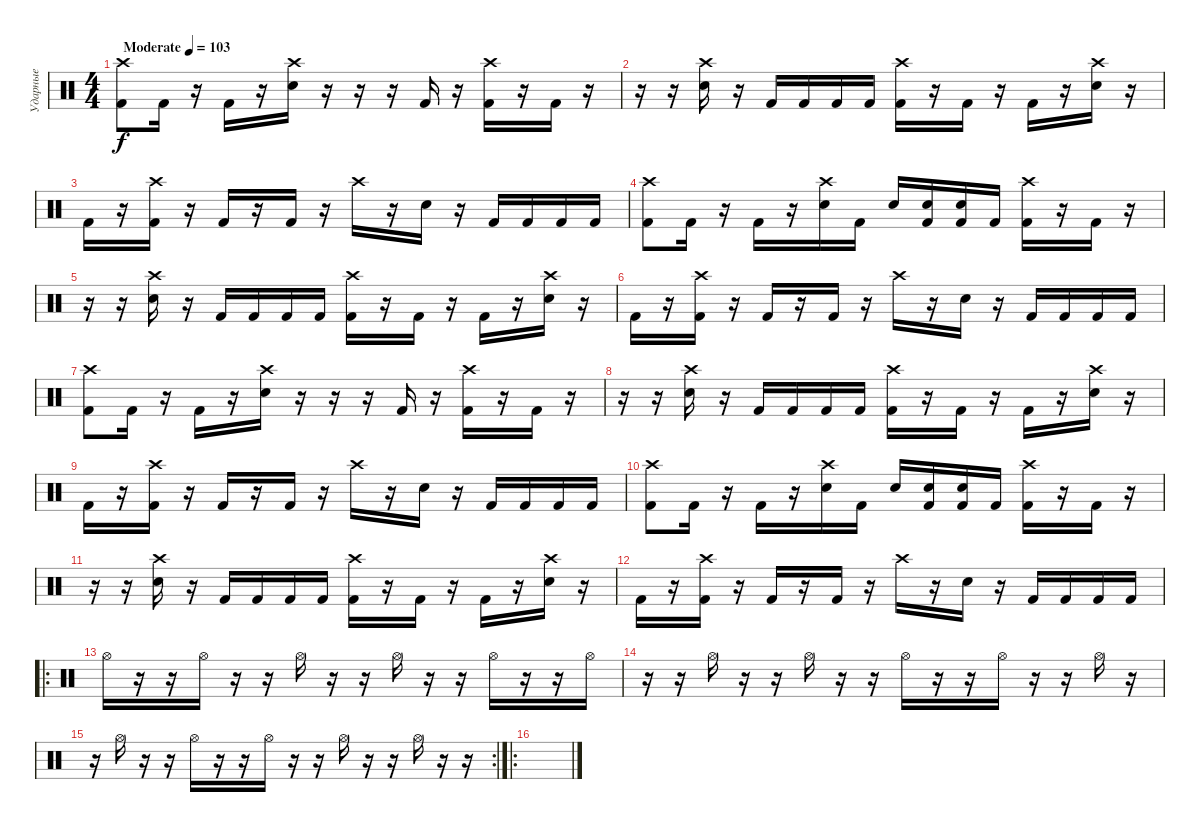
\track ("Ударные" "Ударные") {instrument percussion}
\staff {score}
\articulation defaults
\ts (4 4)
\tempo (103 "Moderate")
\clef neutral
\ks c
("Kick (hit) 2" "Crash high (hit)").8{dy f} "Kick (hit) 2".16 r.16 "Kick (hit) 2".16 r.16 ("Electric Snare (hit)" "Crash high (hit)").16 r.16 r.16 r.16 "Kick (hit) 2".16 r.16 ("Kick (hit) 2" "Crash high (hit)").16 r.16 "Kick (hit) 2".16 r.16 |
r.16 r.16 ("Electric Snare (hit)" "Crash high (hit)").16 r.16 "Kick (hit) 2".16 "Kick (hit) 2".16 "Kick (hit) 2".16 "Kick (hit) 2".16 ("Kick (hit) 2" "Crash high (hit)").16 r.16 "Kick (hit) 2".16 r.16 "Kick (hit) 2".16 r.16 ("Electric Snare (hit)" "Crash high (hit)").16 r.16 |
"Kick (hit) 2".16 r.16 ("Kick (hit) 2" "Crash high (hit)").16 r.16 "Kick (hit) 2".16 r.16 "Kick (hit) 2".16 r.16 "Crash high (hit)".16 r.16 "Electric Snare (hit)".16 r.16 "Kick (hit) 2".16 "Kick (hit) 2".16 "Kick (hit) 2".16 "Kick (hit) 2".16 |
("Kick (hit) 2" "Crash high (hit)").8 "Kick (hit) 2".16 r.16 "Kick (hit) 2".16 r.16 ("Electric Snare (hit)" "Crash high (hit)").16 "Kick (hit) 2".16 "Electric Snare (hit)".16 ("Kick (hit) 2" "Electric Snare (hit)").16 ("Kick (hit) 2" "Electric Snare (hit)").16 "Kick (hit) 2".16 ("Kick (hit) 2" "Crash high (hit)").16 r.16 "Kick (hit) 2".16 r.16 |
r.16 r.16 ("Electric Snare (hit)" "Crash high (hit)").16 r.16 "Kick (hit) 2".16 "Kick (hit) 2".16 "Kick (hit) 2".16 "Kick (hit) 2".16 ("Kick (hit) 2" "Crash high (hit)").16 r.16 "Kick (hit) 2".16 r.16 "Kick (hit) 2".16 r.16 ("Electric Snare (hit)" "Crash high (hit)").16 r.16 |
"Kick (hit) 2".16 r.16 ("Kick (hit) 2" "Crash high (hit)").16 r.16 "Kick (hit) 2".16 r.16 "Kick (hit) 2".16 r.16 "Crash high (hit)".16 r.16 "Electric Snare (hit)".16 r.16 "Kick (hit) 2".16 "Kick (hit) 2".16 "Kick (hit) 2".16 "Kick (hit) 2".16 |
("Kick (hit) 2" "Crash high (hit)").8 "Kick (hit) 2".16 r.16 "Kick (hit) 2".16 r.16 ("Electric Snare (hit)" "Crash high (hit)").16 r.16 r.16 r.16 "Kick (hit) 2".16 r.16 ("Kick (hit) 2" "Crash high (hit)").16 r.16 "Kick (hit) 2".16 r.16 |
r.16 r.16 ("Electric Snare (hit)" "Crash high (hit)").16 r.16 "Kick (hit) 2".16 "Kick (hit) 2".16 "Kick (hit) 2".16 "Kick (hit) 2".16 ("Kick (hit) 2" "Crash high (hit)").16 r.16 "Kick (hit) 2".16 r.16 "Kick (hit) 2".16 r.16 ("Electric Snare (hit)" "Crash high (hit)").16 r.16 |
"Kick (hit) 2".16 r.16 ("Kick (hit) 2" "Crash high (hit)").16 r.16 "Kick (hit) 2".16 r.16 "Kick (hit) 2".16 r.16 "Crash high (hit)".16 r.16 "Electric Snare (hit)".16 r.16 "Kick (hit) 2".16 "Kick (hit) 2".16 "Kick (hit) 2".16 "Kick (hit) 2".16 |
("Kick (hit) 2" "Crash high (hit)").8 "Kick (hit) 2".16 r.16 "Kick (hit) 2".16 r.16 ("Electric Snare (hit)" "Crash high (hit)").16 "Kick (hit) 2".16 "Electric Snare (hit)".16 ("Kick (hit) 2" "Electric Snare (hit)").16 ("Kick (hit) 2" "Electric Snare (hit)").16 "Kick (hit) 2".16 ("Kick (hit) 2" "Crash high (hit)").16 r.16 "Kick (hit) 2".16 r.16 |
r.16 r.16 ("Electric Snare (hit)" "Crash high (hit)").16 r.16 "Kick (hit) 2".16 "Kick (hit) 2".16 "Kick (hit) 2".16 "Kick (hit) 2".16 ("Kick (hit) 2" "Crash high (hit)").16 r.16 "Kick (hit) 2".16 r.16 "Kick (hit) 2".16 r.16 ("Electric Snare (hit)" "Crash high (hit)").16 r.16 |
"Kick (hit) 2".16 r.16 ("Kick (hit) 2" "Crash high (hit)").16 r.16 "Kick (hit) 2".16 r.16 "Kick (hit) 2".16 r.16 "Crash high (hit)".16 r.16 "Electric Snare (hit)".16 r.16 "Kick (hit) 2".16 "Kick (hit) 2".16 "Kick (hit) 2".16 "Kick (hit) 2".16 |
\ro "Hi-Hat (open)".16
r.16 r.16 "Hi-Hat (open)".16 r.16 r.16 "Hi-Hat (open)".16 r.16 r.16 "Hi-Hat (open)".16 r.16 r.16 "Hi-Hat (open)".16 r.16 r.16 "Hi-Hat (open)".16 |
r.16 r.16 "Hi-Hat (open)".16 r.16 r.16 "Hi-Hat (open)".16 r.16 r.16 "Hi-Hat (open)".16 r.16 r.16 "Hi-Hat (open)".16 r.16 r.16 "Hi-Hat (open)".16 r.16 |
\rc 2
r.16 "Hi-Hat (open)".16 r.16 r.16 "Hi-Hat (open)".16 r.16 r.16 "Hi-Hat (open)".16 r.16 r.16 "Hi-Hat (open)".16 r.16 r.16 "Hi-Hat (open)".16 r.16 r.16 |
\ro
